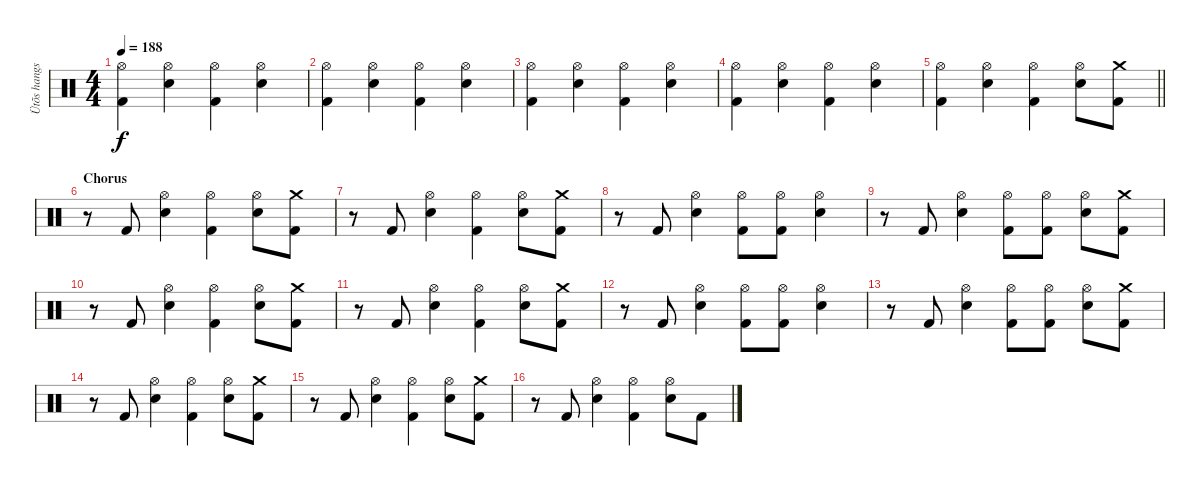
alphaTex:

\track ("Ütõs hangszer" "Ütõs hangs") {instrument percussion}
\staff {score}
\articulation defaults
\ts (4 4)
\tempo 188
\clef neutral
\ks c
("Hi-Hat (open)" "Kick (hit) 2").4{dy f} ("Hi-Hat (open)" "Electric Snare (hit)").4 ("Hi-Hat (open)" "Kick (hit) 2").4 ("Hi-Hat (open)" "Electric Snare (hit)").4 |
("Hi-Hat (open)" "Kick (hit) 2").4 ("Hi-Hat (open)" "Electric Snare (hit)").4 ("Hi-Hat (open)" "Kick (hit) 2").4 ("Hi-Hat (open)" "Electric Snare (hit)").4 |
("Hi-Hat (open)" "Kick (hit) 2").4 ("Hi-Hat (open)" "Electric Snare (hit)").4 ("Hi-Hat (open)" "Kick (hit) 2").4 ("Hi-Hat (open)" "Electric Snare (hit)").4 |
("Hi-Hat (open)" "Kick (hit) 2").4 ("Hi-Hat (open)" "Electric Snare (hit)").4 ("Hi-Hat (open)" "Kick (hit) 2").4 ("Hi-Hat (open)" "Electric Snare (hit)").4 |
\barLineRight lightlight
("Hi-Hat (open)" "Kick (hit) 2").4 ("Hi-Hat (open)" "Electric Snare (hit)").4 ("Hi-Hat (open)" "Kick (hit) 2").4 ("Hi-Hat (open)" "Electric Snare (hit)").8 ("Crash medium (hit)" "Kick (hit) 2").8 |
\section ("" "Chorus")
r.8 "Kick (hit) 2".8 ("Hi-Hat (open)" "Electric Snare (hit)").4 ("Hi-Hat (open)" "Kick (hit) 2").4 ("Hi-Hat (open)" "Electric Snare (hit)").8 ("Crash medium (hit)" "Kick (hit) 2").8 |
r.8 "Kick (hit) 2".8 ("Hi-Hat (open)" "Electric Snare (hit)").4 ("Hi-Hat (open)" "Kick (hit) 2").4 ("Hi-Hat (open)" "Electric Snare (hit)").8 ("Crash medium (hit)" "Kick (hit) 2").8 |
r.8 "Kick (hit) 2".8 ("Hi-Hat (open)" "Electric Snare (hit)").4 ("Hi-Hat (open)" "Kick (hit) 2").8 ("Hi-Hat (open)" "Kick (hit) 2").8 ("Hi-Hat (open)" "Electric Snare (hit)").4 |
r.8 "Kick (hit) 2".8 ("Hi-Hat (open)" "Electric Snare (hit)").4 ("Hi-Hat (open)" "Kick (hit) 2").8 ("Hi-Hat (open)" "Kick (hit) 2").8 ("Hi-Hat (open)" "Electric Snare (hit)").8 ("Crash medium (hit)" "Kick (hit) 2").8 |
r.8 "Kick (hit) 2".8 ("Hi-Hat (open)" "Electric Snare (hit)").4 ("Hi-Hat (open)" "Kick (hit) 2").4 ("Hi-Hat (open)" "Electric Snare (hit)").8 ("Crash medium (hit)" "Kick (hit) 2").8 |
r.8 "Kick (hit) 2".8 ("Hi-Hat (open)" "Electric Snare (hit)").4 ("Hi-Hat (open)" "Kick (hit) 2").4 ("Hi-Hat (open)" "Electric Snare (hit)").8 ("Crash medium (hit)" "Kick (hit) 2").8 |
r.8 "Kick (hit) 2".8 ("Hi-Hat (open)" "Electric Snare (hit)").4 ("Hi-Hat (open)" "Kick (hit) 2").8 ("Hi-Hat (open)" "Kick (hit) 2").8 ("Hi-Hat (open)" "Electric Snare (hit)").4 |
r.8 "Kick (hit) 2".8 ("Hi-Hat (open)" "Electric Snare (hit)").4 ("Hi-Hat (open)" "Kick (hit) 2").8 ("Hi-Hat (open)" "Kick (hit) 2").8 ("Hi-Hat (open)" "Electric Snare (hit)").8 ("Crash medium (hit)" "Kick (hit) 2").8 |
r.8 "Kick (hit) 2".8 ("Hi-Hat (open)" "Electric Snare (hit)").4 ("Hi-Hat (open)" "Kick (hit) 2").4 ("Hi-Hat (open)" "Electric Snare (hit)").8 ("Crash medium (hit)" "Kick (hit) 2").8 |
r.8 "Kick (hit) 2".8 ("Hi-Hat (open)" "Electric Snare (hit)").4 ("Hi-Hat (open)" "Kick (hit) 2").4 ("Hi-Hat (open)" "Electric Snare (hit)").8 ("Crash medium (hit)" "Kick (hit) 2").8 |
r.8 "Kick (hit) 2".8 ("Hi-Hat (open)" "Electric Snare (hit)").4 ("Hi-Hat (open)" "Kick (hit) 2").4 ("Hi-Hat (open)" "Electric Snare (hit)").8 "Kick (hit) 2".8
